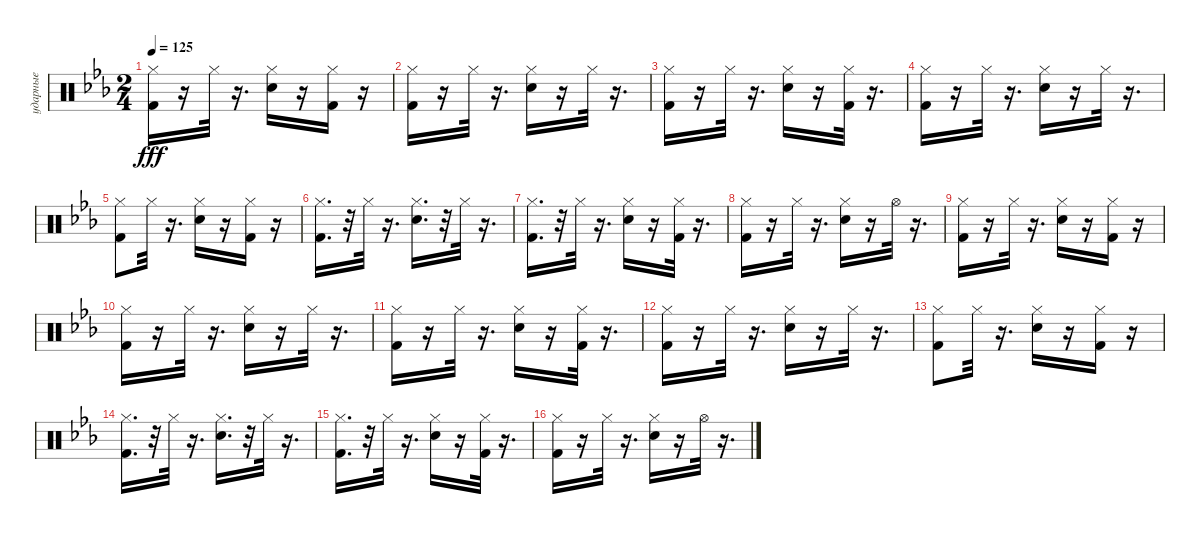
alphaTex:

\track ("ударные" "ударные") {instrument percussion}
\staff {score}
\articulation defaults
\ts (2 4)
\tempo 125
\clef neutral
\ks cminor
("Kick (hit) 2" "Hi-Hat (closed)").16{dy fff} r.16 "Hi-Hat (closed)".32 r.16{d} ("Snare (hit) 2" "Hi-Hat (closed)").16 r.16 ("Kick (hit) 2" "Hi-Hat (closed)").16 r.16 |
("Kick (hit) 2" "Hi-Hat (closed)").16 r.16 "Hi-Hat (closed)".32 r.16{d} ("Snare (hit) 2" "Hi-Hat (closed)").16 r.16 "Hi-Hat (closed)".32 r.16{d} |
("Kick (hit) 2" "Hi-Hat (closed)").16 r.16 "Hi-Hat (closed)".32 r.16{d} ("Snare (hit) 2" "Hi-Hat (closed)").16 r.16 ("Kick (hit) 2" "Hi-Hat (closed)").32 r.16{d} |
("Kick (hit) 2" "Hi-Hat (closed)").16 r.16 "Hi-Hat (closed)".32 r.16{d} ("Snare (hit) 2" "Hi-Hat (closed)").16 r.16 "Hi-Hat (closed)".32 r.16{d} |
("Kick (hit) 2" "Hi-Hat (closed)").8 "Hi-Hat (closed)".32 r.16{d} ("Snare (hit) 2" "Hi-Hat (closed)").16 r.16 ("Kick (hit) 2" "Hi-Hat (closed)").16 r.16 |
("Kick (hit) 2" "Hi-Hat (closed)").16{d} r.32 "Hi-Hat (closed)".32 r.16{d} ("Snare (hit) 2" "Hi-Hat (closed)").16{d} r.32 "Hi-Hat (closed)".32 r.16{d} |
("Kick (hit) 2" "Hi-Hat (closed)").16{d} r.32 "Hi-Hat (closed)".32 r.16{d} ("Snare (hit) 2" "Hi-Hat (closed)").16 r.16 ("Kick (hit) 2" "Hi-Hat (closed)").32 r.16{d} |
("Kick (hit) 2" "Hi-Hat (closed)").16 r.16 "Hi-Hat (closed)".32 r.16{d} ("Snare (hit) 2" "Hi-Hat (closed)").16 r.16 "Hi-Hat (open)".32 r.16{d} |
("Kick (hit) 2" "Hi-Hat (closed)").16 r.16 "Hi-Hat (closed)".32 r.16{d} ("Snare (hit) 2" "Hi-Hat (closed)").16 r.16 ("Kick (hit) 2" "Hi-Hat (closed)").16 r.16 |
("Kick (hit) 2" "Hi-Hat (closed)").16 r.16 "Hi-Hat (closed)".32 r.16{d} ("Snare (hit) 2" "Hi-Hat (closed)").16 r.16 "Hi-Hat (closed)".32 r.16{d} |
("Kick (hit) 2" "Hi-Hat (closed)").16 r.16 "Hi-Hat (closed)".32 r.16{d} ("Snare (hit) 2" "Hi-Hat (closed)").16 r.16 ("Kick (hit) 2" "Hi-Hat (closed)").32 r.16{d} |
("Kick (hit) 2" "Hi-Hat (closed)").16 r.16 "Hi-Hat (closed)".32 r.16{d} ("Snare (hit) 2" "Hi-Hat (closed)").16 r.16 "Hi-Hat (closed)".32 r.16{d} |
("Kick (hit) 2" "Hi-Hat (closed)").8 "Hi-Hat (closed)".32 r.16{d} ("Snare (hit) 2" "Hi-Hat (closed)").16 r.16 ("Kick (hit) 2" "Hi-Hat (closed)").16 r.16 |
("Kick (hit) 2" "Hi-Hat (closed)").16{d} r.32 "Hi-Hat (closed)".32 r.16{d} ("Snare (hit) 2" "Hi-Hat (closed)").16{d} r.32 "Hi-Hat (closed)".32 r.16{d} |
("Kick (hit) 2" "Hi-Hat (closed)").16{d} r.32 "Hi-Hat (closed)".32 r.16{d} ("Snare (hit) 2" "Hi-Hat (closed)").16 r.16 ("Kick (hit) 2" "Hi-Hat (closed)").32 r.16{d} |
("Kick (hit) 2" "Hi-Hat (closed)").16 r.16 "Hi-Hat (closed)".32 r.16{d} ("Snare (hit) 2" "Hi-Hat (closed)").16 r.16 "Hi-Hat (open)".32 r.16{d}
